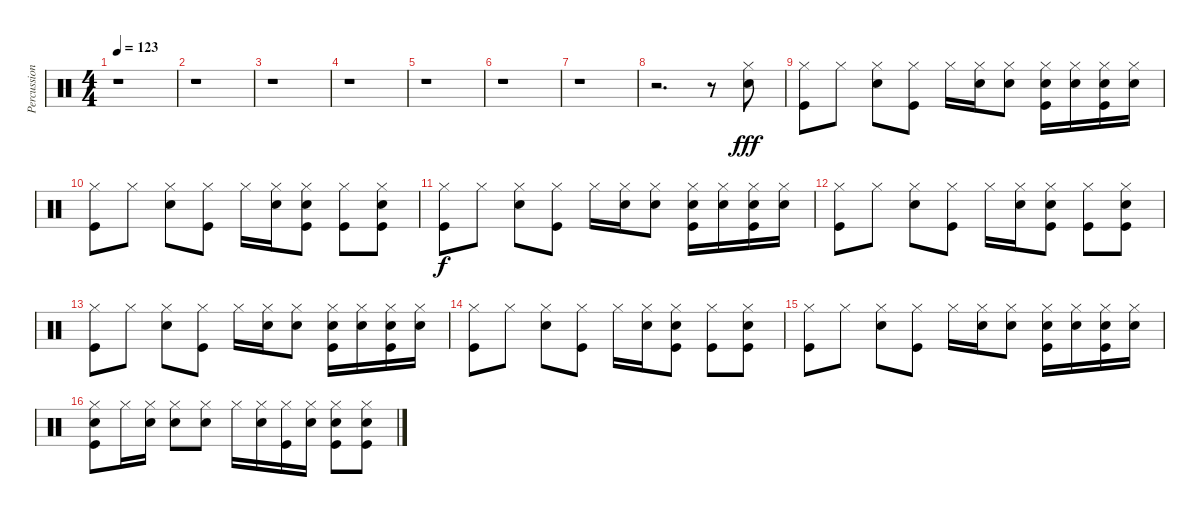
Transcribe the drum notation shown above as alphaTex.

\track ("Percussion" "Percussion") {instrument percussion}
\staff {score}
\articulation defaults
\ts (4 4)
\tempo 123
\clef neutral
\ks c
r.1{dy fff} |
r.1 |
r.1 |
r.1 |
r.1 |
r.1 |
r.1 |
r.2{d} r.8 ("Hi-Hat (closed)" "Snare (hit) 2").8 |
("Hi-Hat (closed)" "Kick (hit)").8 "Hi-Hat (closed)".8 ("Hi-Hat (closed)" "Snare (hit) 2").8 ("Hi-Hat (closed)" "Kick (hit)").8 "Hi-Hat (closed)".16 ("Hi-Hat (closed)" "Snare (hit) 2").16 ("Hi-Hat (closed)" "Snare (hit) 2").8 ("Hi-Hat (closed)" "Snare (hit) 2" "Kick (hit)").16 ("Hi-Hat (closed)" "Snare (hit) 2").16 ("Hi-Hat (closed)" "Snare (hit) 2" "Kick (hit)").16 ("Hi-Hat (closed)" "Snare (hit) 2").16 |
("Hi-Hat (closed)" "Kick (hit)").8 "Hi-Hat (closed)".8 ("Hi-Hat (closed)" "Snare (hit) 2").8 ("Hi-Hat (closed)" "Kick (hit)").8 "Hi-Hat (closed)".16 ("Hi-Hat (closed)" "Snare (hit) 2").16 ("Hi-Hat (closed)" "Snare (hit) 2" "Kick (hit)").8 ("Hi-Hat (closed)" "Kick (hit)").8 ("Hi-Hat (closed)" "Snare (hit) 2" "Kick (hit)").8 |
("Hi-Hat (closed)" "Kick (hit)").8{dy f} "Hi-Hat (closed)".8 ("Hi-Hat (closed)" "Snare (hit) 2").8 ("Hi-Hat (closed)" "Kick (hit)").8 "Hi-Hat (closed)".16 ("Hi-Hat (closed)" "Snare (hit) 2").16 ("Hi-Hat (closed)" "Snare (hit) 2").8 ("Hi-Hat (closed)" "Snare (hit) 2" "Kick (hit)").16 ("Hi-Hat (closed)" "Snare (hit) 2").16 ("Hi-Hat (closed)" "Snare (hit) 2" "Kick (hit)").16 ("Hi-Hat (closed)" "Snare (hit) 2").16 |
("Hi-Hat (closed)" "Kick (hit)").8 "Hi-Hat (closed)".8 ("Hi-Hat (closed)" "Snare (hit) 2").8 ("Hi-Hat (closed)" "Kick (hit)").8 "Hi-Hat (closed)".16 ("Hi-Hat (closed)" "Snare (hit) 2").16 ("Hi-Hat (closed)" "Snare (hit) 2" "Kick (hit)").8 ("Hi-Hat (closed)" "Kick (hit)").8 ("Hi-Hat (closed)" "Snare (hit) 2" "Kick (hit)").8 |
("Hi-Hat (closed)" "Kick (hit)").8 "Hi-Hat (closed)".8 ("Hi-Hat (closed)" "Snare (hit) 2").8 ("Hi-Hat (closed)" "Kick (hit)").8 "Hi-Hat (closed)".16 ("Hi-Hat (closed)" "Snare (hit) 2").16 ("Hi-Hat (closed)" "Snare (hit) 2").8 ("Hi-Hat (closed)" "Snare (hit) 2" "Kick (hit)").16 ("Hi-Hat (closed)" "Snare (hit) 2").16 ("Hi-Hat (closed)" "Snare (hit) 2" "Kick (hit)").16 ("Hi-Hat (closed)" "Snare (hit) 2").16 |
("Hi-Hat (closed)" "Kick (hit)").8 "Hi-Hat (closed)".8 ("Hi-Hat (closed)" "Snare (hit) 2").8 ("Hi-Hat (closed)" "Kick (hit)").8 "Hi-Hat (closed)".16 ("Hi-Hat (closed)" "Snare (hit) 2").16 ("Hi-Hat (closed)" "Snare (hit) 2" "Kick (hit)").8 ("Hi-Hat (closed)" "Kick (hit)").8 ("Hi-Hat (closed)" "Snare (hit) 2" "Kick (hit)").8 |
("Hi-Hat (closed)" "Kick (hit)").8 "Hi-Hat (closed)".8 ("Hi-Hat (closed)" "Snare (hit) 2").8 ("Hi-Hat (closed)" "Kick (hit)").8 "Hi-Hat (closed)".16 ("Hi-Hat (closed)" "Snare (hit) 2").16 ("Hi-Hat (closed)" "Snare (hit) 2").8 ("Hi-Hat (closed)" "Snare (hit) 2" "Kick (hit)").16 ("Hi-Hat (closed)" "Snare (hit) 2").16 ("Hi-Hat (closed)" "Snare (hit) 2" "Kick (hit)").16 ("Hi-Hat (closed)" "Snare (hit) 2").16 |
("Hi-Hat (closed)" "Snare (hit) 2" "Kick (hit)").8 "Hi-Hat (closed)".16 ("Hi-Hat (closed)" "Snare (hit) 2").16 ("Hi-Hat (closed)" "Snare (hit) 2").8 ("Hi-Hat (closed)" "Snare (hit) 2").8 "Hi-Hat (closed)".16 ("Hi-Hat (closed)" "Snare (hit) 2").16 ("Hi-Hat (closed)" "Kick (hit)").16 ("Hi-Hat (closed)" "Snare (hit) 2").16 ("Hi-Hat (closed)" "Snare (hit) 2" "Kick (hit)").8 ("Hi-Hat (closed)" "Snare (hit) 2" "Kick (hit)").8
